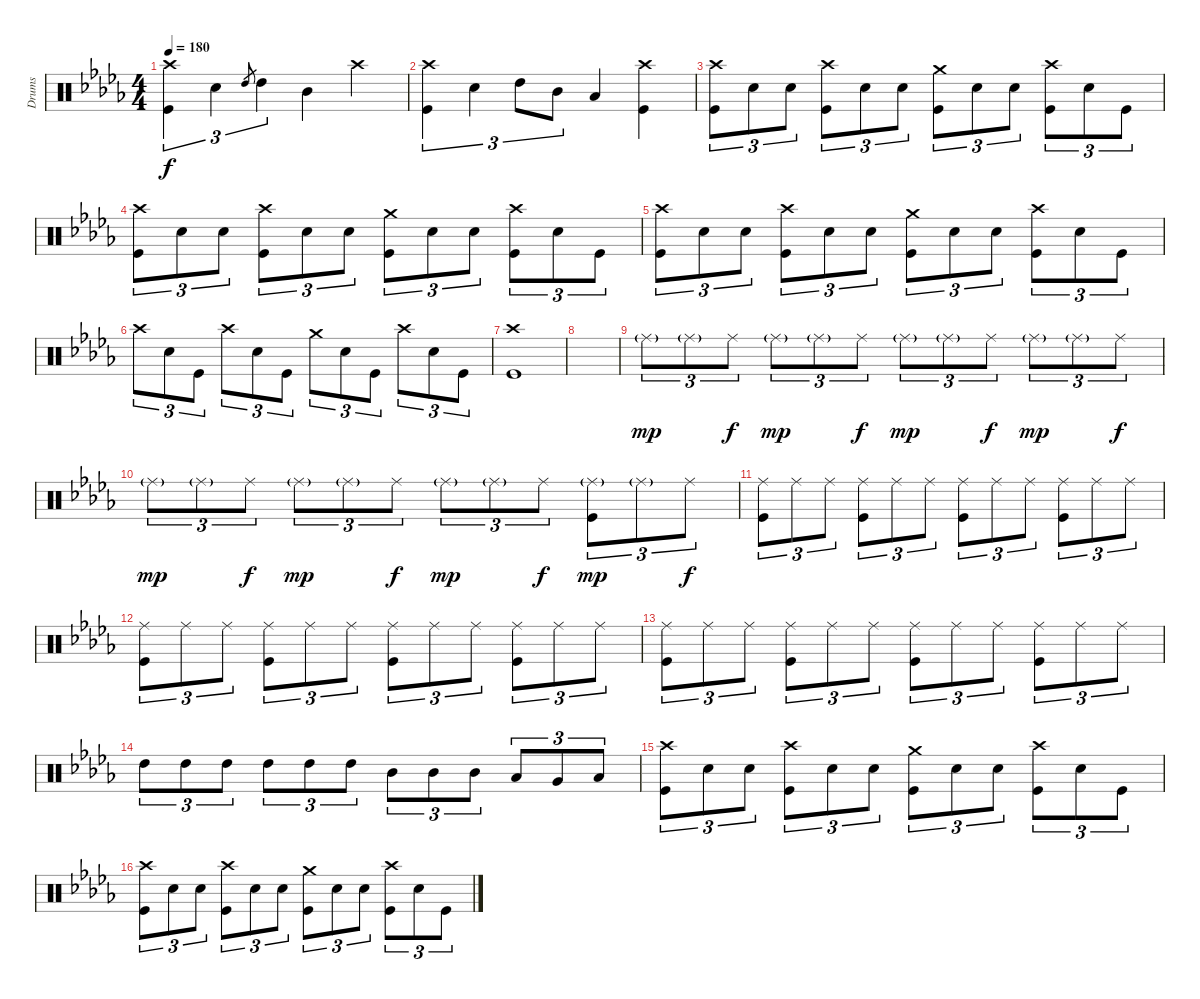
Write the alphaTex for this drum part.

\track ("Drums" "Drums") {instrument percussion}
\staff {score}
\articulation defaults
\ts (4 4)
\tempo 180
\clef neutral
\ks db
("Crash high (hit)" "Kick (hit)").4{tu (3 2) dy f} "Electric Snare (hit)".4{tu (3 2)} "High Tom (hit)".8{gr} "High Tom (hit)".4{tu (3 2)} "Mid Tom (hit)".4 "Crash high (hit)".4 |
("Crash high (hit)" "Kick (hit)").4{tu (3 2)} "Electric Snare (hit)".4{tu (3 2)} "High Tom (hit)".8{tu (3 2)} "Mid Tom (hit)".8{tu (3 2)} "Low Tom (hit)".4 ("Crash high (hit)" "Kick (hit)").4 |
("Crash high (hit)" "Kick (hit)").8{tu (3 2)} "Electric Snare (hit)".8{tu (3 2)} "Electric Snare (hit)".8{tu (3 2)} ("Crash high (hit)" "Kick (hit)").8{tu (3 2)} "Electric Snare (hit)".8{tu (3 2)} "Electric Snare (hit)".8{tu (3 2)} ("Crash medium (hit)" "Kick (hit)").8{tu (3 2)} "Electric Snare (hit)".8{tu (3 2)} "Electric Snare (hit)".8{tu (3 2)} ("Crash high (hit)" "Kick (hit)").8{tu (3 2)} "Electric Snare (hit)".8{tu (3 2)} "Kick (hit)".8{tu (3 2)} |
("Crash high (hit)" "Kick (hit)").8{tu (3 2)} "Electric Snare (hit)".8{tu (3 2)} "Electric Snare (hit)".8{tu (3 2)} ("Crash high (hit)" "Kick (hit)").8{tu (3 2)} "Electric Snare (hit)".8{tu (3 2)} "Electric Snare (hit)".8{tu (3 2)} ("Crash medium (hit)" "Kick (hit)").8{tu (3 2)} "Electric Snare (hit)".8{tu (3 2)} "Electric Snare (hit)".8{tu (3 2)} ("Crash high (hit)" "Kick (hit)").8{tu (3 2)} "Electric Snare (hit)".8{tu (3 2)} "Kick (hit)".8{tu (3 2)} |
("Crash high (hit)" "Kick (hit)").8{tu (3 2)} "Electric Snare (hit)".8{tu (3 2)} "Electric Snare (hit)".8{tu (3 2)} ("Crash high (hit)" "Kick (hit)").8{tu (3 2)} "Electric Snare (hit)".8{tu (3 2)} "Electric Snare (hit)".8{tu (3 2)} ("Crash medium (hit)" "Kick (hit)").8{tu (3 2)} "Electric Snare (hit)".8{tu (3 2)} "Electric Snare (hit)".8{tu (3 2)} ("Crash high (hit)" "Kick (hit)").8{tu (3 2)} "Electric Snare (hit)".8{tu (3 2)} "Kick (hit)".8{tu (3 2)} |
"Crash high (hit)".8{tu (3 2)} "Electric Snare (hit)".8{tu (3 2)} "Kick (hit)".8{tu (3 2)} "Crash high (hit)".8{tu (3 2)} "Electric Snare (hit)".8{tu (3 2)} "Kick (hit)".8{tu (3 2)} "Crash medium (hit)".8{tu (3 2)} "Electric Snare (hit)".8{tu (3 2)} "Kick (hit)".8{tu (3 2)} "Crash high (hit)".8{tu (3 2)} "Electric Snare (hit)".8{tu (3 2)} "Kick (hit)".8{tu (3 2)} |
("Crash high (hit)" "Kick (hit)").1 |
|
"Ride (middle)"{g}.8{tu (3 2) dy mp} "Ride (middle)"{g}.8{tu (3 2)} "Ride (middle)".8{tu (3 2) dy f} "Ride (middle)"{g}.8{tu (3 2) dy mp} "Ride (middle)"{g}.8{tu (3 2)} "Ride (middle)".8{tu (3 2) dy f} "Ride (middle)"{g}.8{tu (3 2) dy mp} "Ride (middle)"{g}.8{tu (3 2)} "Ride (middle)".8{tu (3 2) dy f} "Ride (middle)"{g}.8{tu (3 2) dy mp} "Ride (middle)"{g}.8{tu (3 2)} "Ride (middle)".8{tu (3 2) dy f} |
"Ride (middle)"{g}.8{tu (3 2) dy mp} "Ride (middle)"{g}.8{tu (3 2)} "Ride (middle)".8{tu (3 2) dy f} "Ride (middle)"{g}.8{tu (3 2) dy mp} "Ride (middle)"{g}.8{tu (3 2)} "Ride (middle)".8{tu (3 2) dy f} "Ride (middle)"{g}.8{tu (3 2) dy mp} "Ride (middle)"{g}.8{tu (3 2)} "Ride (middle)".8{tu (3 2) dy f} ("Ride (middle)"{g} "Kick (hit)").8{tu (3 2) dy mp} "Ride (middle)"{g}.8{tu (3 2)} "Ride (middle)".8{tu (3 2) dy f} |
("Ride (middle)" "Kick (hit)").8{tu (3 2)} "Ride (middle)".8{tu (3 2)} "Ride (middle)".8{tu (3 2)} ("Ride (middle)" "Kick (hit)").8{tu (3 2)} "Ride (middle)".8{tu (3 2)} "Ride (middle)".8{tu (3 2)} ("Ride (middle)" "Kick (hit)").8{tu (3 2)} "Ride (middle)".8{tu (3 2)} "Ride (middle)".8{tu (3 2)} ("Ride (middle)" "Kick (hit)").8{tu (3 2)} "Ride (middle)".8{tu (3 2)} "Ride (middle)".8{tu (3 2)} |
("Ride (middle)" "Kick (hit)").8{tu (3 2)} "Ride (middle)".8{tu (3 2)} "Ride (middle)".8{tu (3 2)} ("Ride (middle)" "Kick (hit)").8{tu (3 2)} "Ride (middle)".8{tu (3 2)} "Ride (middle)".8{tu (3 2)} ("Ride (middle)" "Kick (hit)").8{tu (3 2)} "Ride (middle)".8{tu (3 2)} "Ride (middle)".8{tu (3 2)} ("Ride (middle)" "Kick (hit)").8{tu (3 2)} "Ride (middle)".8{tu (3 2)} "Ride (middle)".8{tu (3 2)} |
("Ride (middle)" "Kick (hit)").8{tu (3 2)} "Ride (middle)".8{tu (3 2)} "Ride (middle)".8{tu (3 2)} ("Ride (middle)" "Kick (hit)").8{tu (3 2)} "Ride (middle)".8{tu (3 2)} "Ride (middle)".8{tu (3 2)} ("Ride (middle)" "Kick (hit)").8{tu (3 2)} "Ride (middle)".8{tu (3 2)} "Ride (middle)".8{tu (3 2)} ("Ride (middle)" "Kick (hit)").8{tu (3 2)} "Ride (middle)".8{tu (3 2)} "Ride (middle)".8{tu (3 2)} |
"High Tom (hit)".8{tu (3 2)} "High Tom (hit)".8{tu (3 2)} "High Tom (hit)".8{tu (3 2)} "High Tom (hit)".8{tu (3 2)} "High Tom (hit)".8{tu (3 2)} "High Tom (hit)".8{tu (3 2)} "Mid Tom (hit)".8{tu (3 2)} "Mid Tom (hit)".8{tu (3 2)} "Mid Tom (hit)".8{tu (3 2)} "Low Tom (hit)".8{tu (3 2)} "Very Low Tom (hit)".8{tu (3 2)} "Low Floor Tom (hit)".8{tu (3 2)} |
("Crash high (hit)" "Kick (hit)").8{tu (3 2)} "Electric Snare (hit)".8{tu (3 2)} "Electric Snare (hit)".8{tu (3 2)} ("Crash high (hit)" "Kick (hit)").8{tu (3 2)} "Electric Snare (hit)".8{tu (3 2)} "Electric Snare (hit)".8{tu (3 2)} ("Crash medium (hit)" "Kick (hit)").8{tu (3 2)} "Electric Snare (hit)".8{tu (3 2)} "Electric Snare (hit)".8{tu (3 2)} ("Crash high (hit)" "Kick (hit)").8{tu (3 2)} "Electric Snare (hit)".8{tu (3 2)} "Kick (hit)".8{tu (3 2)} |
("Crash high (hit)" "Kick (hit)").8{tu (3 2)} "Electric Snare (hit)".8{tu (3 2)} "Electric Snare (hit)".8{tu (3 2)} ("Crash high (hit)" "Kick (hit)").8{tu (3 2)} "Electric Snare (hit)".8{tu (3 2)} "Electric Snare (hit)".8{tu (3 2)} ("Crash medium (hit)" "Kick (hit)").8{tu (3 2)} "Electric Snare (hit)".8{tu (3 2)} "Electric Snare (hit)".8{tu (3 2)} ("Crash high (hit)" "Kick (hit)").8{tu (3 2)} "Electric Snare (hit)".8{tu (3 2)} "Kick (hit)".8{tu (3 2)}
